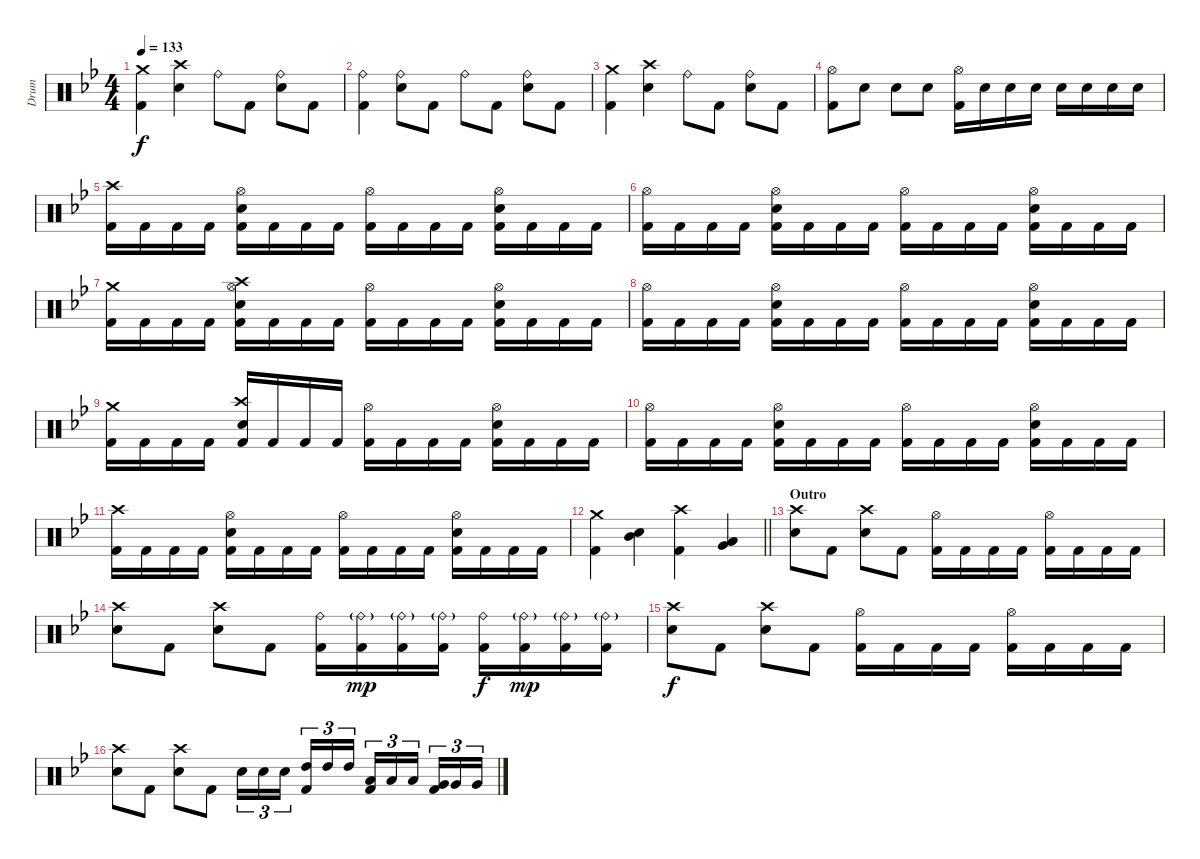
\track ("Drum" "Drum") {instrument percussion}
\staff {score}
\articulation defaults
\ts (4 4)
\tempo 133
\clef neutral
\ks bb
("Crash medium (hit)" "Kick (hit) 2").4{dy f} ("Crash high (hit)" "Snare (hit) 2").4 "Ride (bell)".8 "Kick (hit) 2".8 ("Ride (bell)" "Snare (hit) 2").8 "Kick (hit) 2".8 |
("Ride (bell)" "Kick (hit) 2").4 ("Ride (bell)" "Snare (hit) 2").8 "Kick (hit) 2".8 "Ride (bell)".8 "Kick (hit) 2".8 ("Ride (bell)" "Snare (hit) 2").8 "Kick (hit) 2".8 |
("Crash medium (hit)" "Kick (hit) 2").4 ("Crash high (hit)" "Snare (hit) 2").4 "Ride (bell)".8 "Kick (hit) 2".8 ("Ride (bell)" "Snare (hit) 2").8 "Kick (hit) 2".8 |
("Hi-Hat (open)" "Kick (hit) 2").8 "Snare (hit) 2".8 "Snare (hit) 2".8 "Snare (hit) 2".8 ("Hi-Hat (open)" "Kick (hit) 2").16 "Snare (hit) 2".16 "Snare (hit) 2".16 "Snare (hit) 2".16 "Snare (hit) 2".16 "Snare (hit) 2".16 "Snare (hit) 2".16 "Snare (hit) 2".16 |
("Crash high (hit)" "Kick (hit) 2").16 "Kick (hit) 2".16 "Kick (hit) 2".16 "Kick (hit) 2".16 ("Hi-Hat (open)" "Snare (hit) 2" "Kick (hit) 2").16 "Kick (hit) 2".16 "Kick (hit) 2".16 "Kick (hit) 2".16 ("Hi-Hat (open)" "Kick (hit) 2").16 "Kick (hit) 2".16 "Kick (hit) 2".16 "Kick (hit) 2".16 ("Hi-Hat (open)" "Snare (hit) 2" "Kick (hit) 2").16 "Kick (hit) 2".16 "Kick (hit) 2".16 "Kick (hit) 2".16 |
("Hi-Hat (open)" "Kick (hit) 2").16 "Kick (hit) 2".16 "Kick (hit) 2".16 "Kick (hit) 2".16 ("Hi-Hat (open)" "Snare (hit) 2" "Kick (hit) 2").16 "Kick (hit) 2".16 "Kick (hit) 2".16 "Kick (hit) 2".16 ("Hi-Hat (open)" "Kick (hit) 2").16 "Kick (hit) 2".16 "Kick (hit) 2".16 "Kick (hit) 2".16 ("Hi-Hat (open)" "Snare (hit) 2" "Kick (hit) 2").16 "Kick (hit) 2".16 "Kick (hit) 2".16 "Kick (hit) 2".16 |
("Crash medium (hit)" "Kick (hit) 2").16 "Kick (hit) 2".16 "Kick (hit) 2".16 "Kick (hit) 2".16 ("Crash high (hit)" "Hi-Hat (open)" "Snare (hit) 2" "Kick (hit) 2").16 "Kick (hit) 2".16 "Kick (hit) 2".16 "Kick (hit) 2".16 ("Hi-Hat (open)" "Kick (hit) 2").16 "Kick (hit) 2".16 "Kick (hit) 2".16 "Kick (hit) 2".16 ("Hi-Hat (open)" "Snare (hit) 2" "Kick (hit) 2").16 "Kick (hit) 2".16 "Kick (hit) 2".16 "Kick (hit) 2".16 |
("Hi-Hat (open)" "Kick (hit) 2").16 "Kick (hit) 2".16 "Kick (hit) 2".16 "Kick (hit) 2".16 ("Hi-Hat (open)" "Snare (hit) 2" "Kick (hit) 2").16 "Kick (hit) 2".16 "Kick (hit) 2".16 "Kick (hit) 2".16 ("Hi-Hat (open)" "Kick (hit) 2").16 "Kick (hit) 2".16 "Kick (hit) 2".16 "Kick (hit) 2".16 ("Hi-Hat (open)" "Snare (hit) 2" "Kick (hit) 2").16 "Kick (hit) 2".16 "Kick (hit) 2".16 "Kick (hit) 2".16 |
("Crash medium (hit)" "Kick (hit) 2").16 "Kick (hit) 2".16 "Kick (hit) 2".16 "Kick (hit) 2".16 ("Crash high (hit)" "Snare (hit) 2" "Kick (hit) 2").16 "Kick (hit) 2".16 "Kick (hit) 2".16 "Kick (hit) 2".16 ("Hi-Hat (open)" "Kick (hit) 2").16 "Kick (hit) 2".16 "Kick (hit) 2".16 "Kick (hit) 2".16 ("Hi-Hat (open)" "Snare (hit) 2" "Kick (hit) 2").16 "Kick (hit) 2".16 "Kick (hit) 2".16 "Kick (hit) 2".16 |
("Hi-Hat (open)" "Kick (hit) 2").16 "Kick (hit) 2".16 "Kick (hit) 2".16 "Kick (hit) 2".16 ("Hi-Hat (open)" "Snare (hit) 2" "Kick (hit) 2").16 "Kick (hit) 2".16 "Kick (hit) 2".16 "Kick (hit) 2".16 ("Hi-Hat (open)" "Kick (hit) 2").16 "Kick (hit) 2".16 "Kick (hit) 2".16 "Kick (hit) 2".16 ("Hi-Hat (open)" "Snare (hit) 2" "Kick (hit) 2").16 "Kick (hit) 2".16 "Kick (hit) 2".16 "Kick (hit) 2".16 |
("Crash high (hit)" "Kick (hit) 2").16 "Kick (hit) 2".16 "Kick (hit) 2".16 "Kick (hit) 2".16 ("Hi-Hat (open)" "Snare (hit) 2" "Kick (hit) 2").16 "Kick (hit) 2".16 "Kick (hit) 2".16 "Kick (hit) 2".16 ("Hi-Hat (open)" "Kick (hit) 2").16 "Kick (hit) 2".16 "Kick (hit) 2".16 "Kick (hit) 2".16 ("Hi-Hat (open)" "Snare (hit) 2" "Kick (hit) 2").16 "Kick (hit) 2".16 "Kick (hit) 2".16 "Kick (hit) 2".16 |
\barLineRight lightlight
("Crash medium (hit)" "Kick (hit) 2").4 ("Mid Tom (hit)" "Snare (hit)").4 ("Crash high (hit)" "Kick (hit) 2").4 ("Low Tom (hit)" "Very Low Tom (hit)").4 |
\section ("" "Outro")
("Crash high (hit)" "Snare (hit) 2").8 "Kick (hit) 2".8 ("Crash high (hit)" "Snare (hit) 2").8 "Kick (hit) 2".8 ("Hi-Hat (open)" "Kick (hit) 2").16 "Kick (hit) 2".16 "Kick (hit) 2".16 "Kick (hit) 2".16 ("Hi-Hat (open)" "Kick (hit) 2").16 "Kick (hit) 2".16 "Kick (hit) 2".16 "Kick (hit) 2".16 |
("Crash high (hit)" "Snare (hit) 2").8 "Kick (hit) 2".8 ("Crash high (hit)" "Snare (hit) 2").8 "Kick (hit) 2".8 ("Ride (bell)" "Kick (hit) 2").16 ("Ride (bell)"{g} "Kick (hit) 2").16{dy mp} ("Ride (bell)"{g} "Kick (hit) 2").16 ("Ride (bell)"{g} "Kick (hit) 2").16 ("Ride (bell)" "Kick (hit) 2").16{dy f} ("Ride (bell)"{g} "Kick (hit) 2").16{dy mp} ("Ride (bell)"{g} "Kick (hit) 2").16 ("Ride (bell)"{g} "Kick (hit) 2").16 |
("Crash high (hit)" "Snare (hit) 2").8{dy f} "Kick (hit) 2".8 ("Crash high (hit)" "Snare (hit) 2").8 "Kick (hit) 2".8 ("Hi-Hat (open)" "Kick (hit) 2").16 "Kick (hit) 2".16 "Kick (hit) 2".16 "Kick (hit) 2".16 ("Hi-Hat (open)" "Kick (hit) 2").16 "Kick (hit) 2".16 "Kick (hit) 2".16 "Kick (hit) 2".16 |
("Crash high (hit)" "Snare (hit) 2").8 "Kick (hit) 2".8 ("Crash high (hit)" "Snare (hit) 2").8 "Kick (hit) 2".8 "Snare (hit) 2".16{tu (3 2)} "Snare (hit) 2".16{tu (3 2)} "Snare (hit) 2".16{tu (3 2) beam splitsecondary} ("High Tom (hit)" "Kick (hit) 2").16{tu (3 2)} "High Tom (hit)".16{tu (3 2)} "High Tom (hit)".16{tu (3 2)} ("Low Tom (hit)" "Kick (hit) 2").16{tu (3 2)} "Low Tom (hit)".16{tu (3 2)} "Low Tom (hit)".16{tu (3 2) beam splitsecondary} ("Very Low Tom (hit)" "Kick (hit) 2").16{tu (3 2)} "Very Low Tom (hit)".16{tu (3 2)} "Very Low Tom (hit)".16{tu (3 2)}
